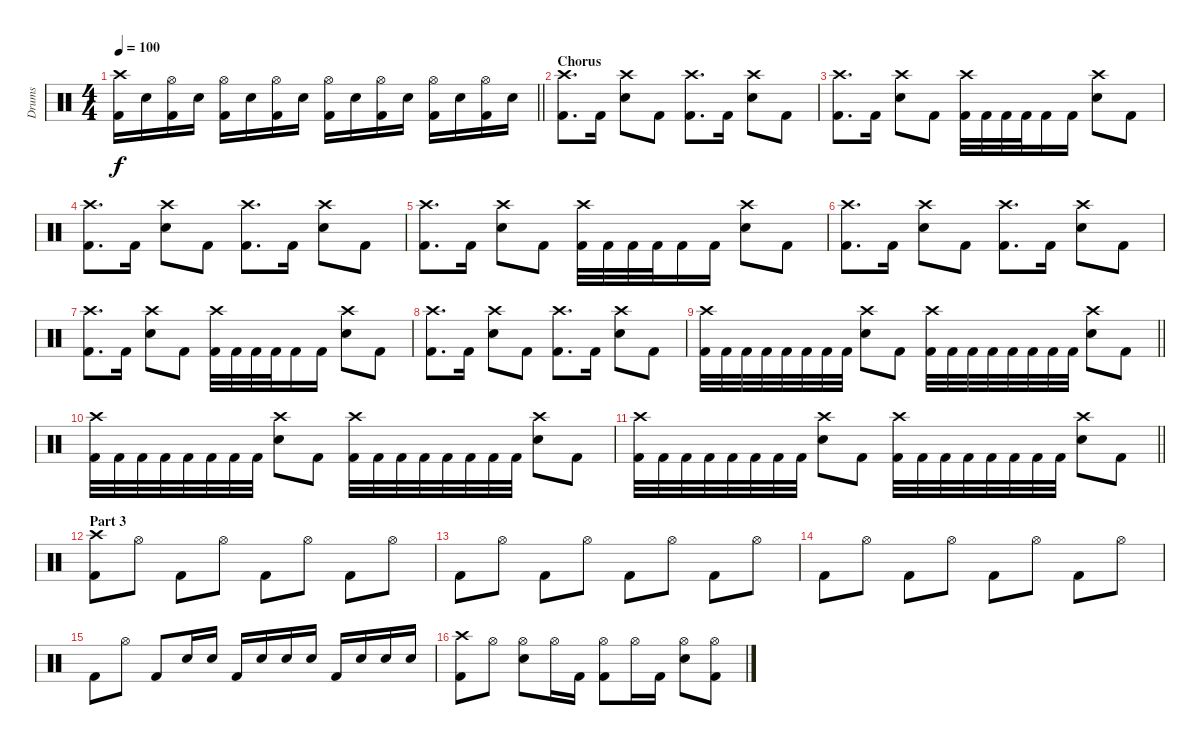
\track ("Drums" "Drums") {instrument percussion}
\staff {score}
\articulation defaults
\ts (4 4)
\tempo 100
\clef neutral
\barLineRight lightlight
\ks c
("Crash high (hit)" "Kick (hit) 2").16{dy f} "Snare (hit) 2".16 ("Hi-Hat (open)" "Kick (hit) 2").16 "Snare (hit) 2".16 ("Hi-Hat (open)" "Kick (hit) 2").16 "Snare (hit) 2".16 ("Hi-Hat (open)" "Kick (hit) 2").16 "Snare (hit) 2".16 ("Hi-Hat (open)" "Kick (hit) 2").16 "Snare (hit) 2".16 ("Hi-Hat (open)" "Kick (hit) 2").16 "Snare (hit) 2".16 ("Hi-Hat (open)" "Kick (hit) 2").16 "Snare (hit) 2".16 ("Hi-Hat (open)" "Kick (hit) 2").16 "Snare (hit) 2".16 |
\section ("" "Chorus")
("Crash high (hit)" "Kick (hit) 2").8{d} "Kick (hit) 2".16 ("Crash high (hit)" "Snare (hit) 2").8 "Kick (hit) 2".8 ("Crash high (hit)" "Kick (hit) 2").8{d} "Kick (hit) 2".16 ("Crash high (hit)" "Snare (hit) 2").8 "Kick (hit) 2".8 |
("Crash high (hit)" "Kick (hit) 2").8{d} "Kick (hit) 2".16 ("Crash high (hit)" "Snare (hit) 2").8 "Kick (hit) 2".8 ("Crash high (hit)" "Kick (hit) 2").32 "Kick (hit) 2".32 "Kick (hit) 2".32 "Kick (hit) 2".32 "Kick (hit) 2".16 "Kick (hit) 2".16 ("Crash high (hit)" "Snare (hit) 2").8 "Kick (hit) 2".8 |
("Crash high (hit)" "Kick (hit) 2").8{d} "Kick (hit) 2".16 ("Crash high (hit)" "Snare (hit) 2").8 "Kick (hit) 2".8 ("Crash high (hit)" "Kick (hit) 2").8{d} "Kick (hit) 2".16 ("Crash high (hit)" "Snare (hit) 2").8 "Kick (hit) 2".8 |
("Crash high (hit)" "Kick (hit) 2").8{d} "Kick (hit) 2".16 ("Crash high (hit)" "Snare (hit) 2").8 "Kick (hit) 2".8 ("Crash high (hit)" "Kick (hit) 2").32 "Kick (hit) 2".32 "Kick (hit) 2".32 "Kick (hit) 2".32 "Kick (hit) 2".16 "Kick (hit) 2".16 ("Crash high (hit)" "Snare (hit) 2").8 "Kick (hit) 2".8 |
("Crash high (hit)" "Kick (hit) 2").8{d} "Kick (hit) 2".16 ("Crash high (hit)" "Snare (hit) 2").8 "Kick (hit) 2".8 ("Crash high (hit)" "Kick (hit) 2").8{d} "Kick (hit) 2".16 ("Crash high (hit)" "Snare (hit) 2").8 "Kick (hit) 2".8 |
("Crash high (hit)" "Kick (hit) 2").8{d} "Kick (hit) 2".16 ("Crash high (hit)" "Snare (hit) 2").8 "Kick (hit) 2".8 ("Crash high (hit)" "Kick (hit) 2").32 "Kick (hit) 2".32 "Kick (hit) 2".32 "Kick (hit) 2".32 "Kick (hit) 2".16 "Kick (hit) 2".16 ("Crash high (hit)" "Snare (hit) 2").8 "Kick (hit) 2".8 |
("Crash high (hit)" "Kick (hit) 2").8{d} "Kick (hit) 2".16 ("Crash high (hit)" "Snare (hit) 2").8 "Kick (hit) 2".8 ("Crash high (hit)" "Kick (hit) 2").8{d} "Kick (hit) 2".16 ("Crash high (hit)" "Snare (hit) 2").8 "Kick (hit) 2".8 |
\barLineRight lightlight
("Crash high (hit)" "Kick (hit) 2").32 "Kick (hit) 2".32 "Kick (hit) 2".32 "Kick (hit) 2".32 "Kick (hit) 2".32 "Kick (hit) 2".32 "Kick (hit) 2".32 "Kick (hit) 2".32 ("Crash high (hit)" "Snare (hit) 2").8 "Kick (hit) 2".8 ("Crash high (hit)" "Kick (hit) 2").32 "Kick (hit) 2".32 "Kick (hit) 2".32 "Kick (hit) 2".32 "Kick (hit) 2".32 "Kick (hit) 2".32 "Kick (hit) 2".32 "Kick (hit) 2".32 ("Crash high (hit)" "Snare (hit) 2").8 "Kick (hit) 2".8 |
("Crash high (hit)" "Kick (hit) 2").32 "Kick (hit) 2".32 "Kick (hit) 2".32 "Kick (hit) 2".32 "Kick (hit) 2".32 "Kick (hit) 2".32 "Kick (hit) 2".32 "Kick (hit) 2".32 ("Crash high (hit)" "Snare (hit) 2").8 "Kick (hit) 2".8 ("Crash high (hit)" "Kick (hit) 2").32 "Kick (hit) 2".32 "Kick (hit) 2".32 "Kick (hit) 2".32 "Kick (hit) 2".32 "Kick (hit) 2".32 "Kick (hit) 2".32 "Kick (hit) 2".32 ("Crash high (hit)" "Snare (hit) 2").8 "Kick (hit) 2".8 |
\barLineRight lightlight
("Crash high (hit)" "Kick (hit) 2").32 "Kick (hit) 2".32 "Kick (hit) 2".32 "Kick (hit) 2".32 "Kick (hit) 2".32 "Kick (hit) 2".32 "Kick (hit) 2".32 "Kick (hit) 2".32 ("Crash high (hit)" "Snare (hit) 2").8 "Kick (hit) 2".8 ("Crash high (hit)" "Kick (hit) 2").32 "Kick (hit) 2".32 "Kick (hit) 2".32 "Kick (hit) 2".32 "Kick (hit) 2".32 "Kick (hit) 2".32 "Kick (hit) 2".32 "Kick (hit) 2".32 ("Crash high (hit)" "Snare (hit) 2").8 "Kick (hit) 2".8 |
\section ("" "Part 3")
("Crash high (hit)" "Kick (hit) 2").8 "Hi-Hat (open)".8 "Kick (hit) 2".8 "Hi-Hat (open)".8 "Kick (hit) 2".8 "Hi-Hat (open)".8 "Kick (hit) 2".8 "Hi-Hat (open)".8 |
"Kick (hit) 2".8 "Hi-Hat (open)".8 "Kick (hit) 2".8 "Hi-Hat (open)".8 "Kick (hit) 2".8 "Hi-Hat (open)".8 "Kick (hit) 2".8 "Hi-Hat (open)".8 |
"Kick (hit) 2".8 "Hi-Hat (open)".8 "Kick (hit) 2".8 "Hi-Hat (open)".8 "Kick (hit) 2".8 "Hi-Hat (open)".8 "Kick (hit) 2".8 "Hi-Hat (open)".8 |
"Kick (hit) 2".8 "Hi-Hat (open)".8 "Kick (hit) 2".8 "Snare (hit) 2".16 "Snare (hit) 2".16 "Kick (hit) 2".16 "Snare (hit) 2".16 "Snare (hit) 2".16 "Snare (hit) 2".16 "Kick (hit) 2".16 "Snare (hit) 2".16 "Snare (hit) 2".16 "Snare (hit) 2".16 |
("Crash high (hit)" "Kick (hit) 2").8 "Hi-Hat (open)".8 ("Hi-Hat (open)" "Snare (hit) 2").8 "Hi-Hat (open)".16 "Kick (hit) 2".16 ("Hi-Hat (open)" "Kick (hit) 2").8 "Hi-Hat (open)".16 "Kick (hit) 2".16 ("Hi-Hat (open)" "Snare (hit) 2").8 ("Hi-Hat (open)" "Kick (hit) 2").8
